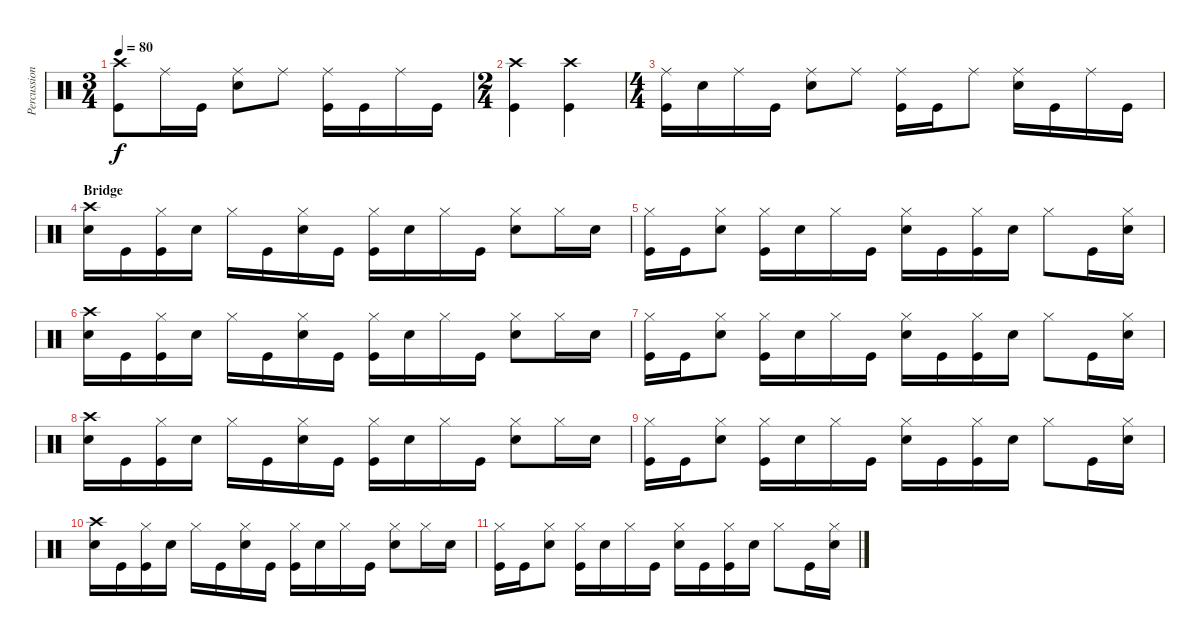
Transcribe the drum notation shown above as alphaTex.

\track ("Percussion" "Percussion") {instrument percussion}
\staff {score}
\articulation defaults
\ts (3 4)
\tempo 80
\clef neutral
\ks c
("Crash high (hit)" "Kick (hit)").8{dy f} "Ride (middle)".16 "Kick (hit)".16 ("Ride (middle)" "Snare (hit) 2").8 "Ride (middle)".8 ("Ride (middle)" "Kick (hit)").16 "Kick (hit)".16 "Ride (middle)".16 "Kick (hit)".16 |
\ts (2 4)
("Crash high (hit)" "Kick (hit)").4 ("Crash high (hit)" "Kick (hit)").4 |
\ts (4 4)
("Ride (middle)" "Kick (hit)").16 "Snare (hit) 2".16 "Ride (middle)".16 "Kick (hit)".16 ("Ride (middle)" "Snare (hit) 2").8 "Ride (middle)".8 ("Ride (middle)" "Kick (hit)").16 "Kick (hit)".16 "Ride (middle)".8 ("Ride (middle)" "Snare (hit) 2").16 "Kick (hit)".16 "Ride (middle)".16 "Kick (hit)".16 |
\section ("" "Bridge")
("Crash high (hit)" "Snare (hit) 2").16 "Kick (hit)".16 ("Hi-Hat (closed)" "Kick (hit)").16 "Snare (hit) 2".16 "Hi-Hat (closed)".16 "Kick (hit)".16 ("Hi-Hat (closed)" "Snare (hit) 2").16 "Kick (hit)".16 ("Hi-Hat (closed)" "Kick (hit)").16 "Snare (hit) 2".16 "Hi-Hat (closed)".16 "Kick (hit)".16 ("Hi-Hat (closed)" "Snare (hit) 2").8 "Hi-Hat (closed)".16 "Snare (hit) 2".16 |
("Hi-Hat (closed)" "Kick (hit)").16 "Kick (hit)".16 ("Hi-Hat (closed)" "Snare (hit) 2").8 ("Hi-Hat (closed)" "Kick (hit)").16 "Snare (hit) 2".16 "Hi-Hat (closed)".16 "Kick (hit)".16 ("Hi-Hat (closed)" "Snare (hit) 2").16 "Kick (hit)".16 ("Hi-Hat (closed)" "Kick (hit)").16 "Snare (hit) 2".16 "Hi-Hat (closed)".8 "Kick (hit)".16 ("Hi-Hat (closed)" "Snare (hit) 2").16 |
("Crash high (hit)" "Snare (hit) 2").16 "Kick (hit)".16 ("Hi-Hat (closed)" "Kick (hit)").16 "Snare (hit) 2".16 "Hi-Hat (closed)".16 "Kick (hit)".16 ("Hi-Hat (closed)" "Snare (hit) 2").16 "Kick (hit)".16 ("Hi-Hat (closed)" "Kick (hit)").16 "Snare (hit) 2".16 "Hi-Hat (closed)".16 "Kick (hit)".16 ("Hi-Hat (closed)" "Snare (hit) 2").8 "Hi-Hat (closed)".16 "Snare (hit) 2".16 |
("Hi-Hat (closed)" "Kick (hit)").16 "Kick (hit)".16 ("Hi-Hat (closed)" "Snare (hit) 2").8 ("Hi-Hat (closed)" "Kick (hit)").16 "Snare (hit) 2".16 "Hi-Hat (closed)".16 "Kick (hit)".16 ("Hi-Hat (closed)" "Snare (hit) 2").16 "Kick (hit)".16 ("Hi-Hat (closed)" "Kick (hit)").16 "Snare (hit) 2".16 "Hi-Hat (closed)".8 "Kick (hit)".16 ("Hi-Hat (closed)" "Snare (hit) 2").16 |
("Crash high (hit)" "Snare (hit) 2").16 "Kick (hit)".16 ("Hi-Hat (closed)" "Kick (hit)").16 "Snare (hit) 2".16 "Hi-Hat (closed)".16 "Kick (hit)".16 ("Hi-Hat (closed)" "Snare (hit) 2").16 "Kick (hit)".16 ("Hi-Hat (closed)" "Kick (hit)").16 "Snare (hit) 2".16 "Hi-Hat (closed)".16 "Kick (hit)".16 ("Hi-Hat (closed)" "Snare (hit) 2").8 "Hi-Hat (closed)".16 "Snare (hit) 2".16 |
("Hi-Hat (closed)" "Kick (hit)").16 "Kick (hit)".16 ("Hi-Hat (closed)" "Snare (hit) 2").8 ("Hi-Hat (closed)" "Kick (hit)").16 "Snare (hit) 2".16 "Hi-Hat (closed)".16 "Kick (hit)".16 ("Hi-Hat (closed)" "Snare (hit) 2").16 "Kick (hit)".16 ("Hi-Hat (closed)" "Kick (hit)").16 "Snare (hit) 2".16 "Hi-Hat (closed)".8 "Kick (hit)".16 ("Hi-Hat (closed)" "Snare (hit) 2").16 |
("Crash high (hit)" "Snare (hit) 2").16 "Kick (hit)".16 ("Hi-Hat (closed)" "Kick (hit)").16 "Snare (hit) 2".16 "Hi-Hat (closed)".16 "Kick (hit)".16 ("Hi-Hat (closed)" "Snare (hit) 2").16 "Kick (hit)".16 ("Hi-Hat (closed)" "Kick (hit)").16 "Snare (hit) 2".16 "Hi-Hat (closed)".16 "Kick (hit)".16 ("Hi-Hat (closed)" "Snare (hit) 2").8 "Hi-Hat (closed)".16 "Snare (hit) 2".16 |
("Hi-Hat (closed)" "Kick (hit)").16 "Kick (hit)".16 ("Hi-Hat (closed)" "Snare (hit) 2").8 ("Hi-Hat (closed)" "Kick (hit)").16 "Snare (hit) 2".16 "Hi-Hat (closed)".16 "Kick (hit)".16 ("Hi-Hat (closed)" "Snare (hit) 2").16 "Kick (hit)".16 ("Hi-Hat (closed)" "Kick (hit)").16 "Snare (hit) 2".16 "Hi-Hat (closed)".8 "Kick (hit)".16 ("Hi-Hat (closed)" "Snare (hit) 2").16
